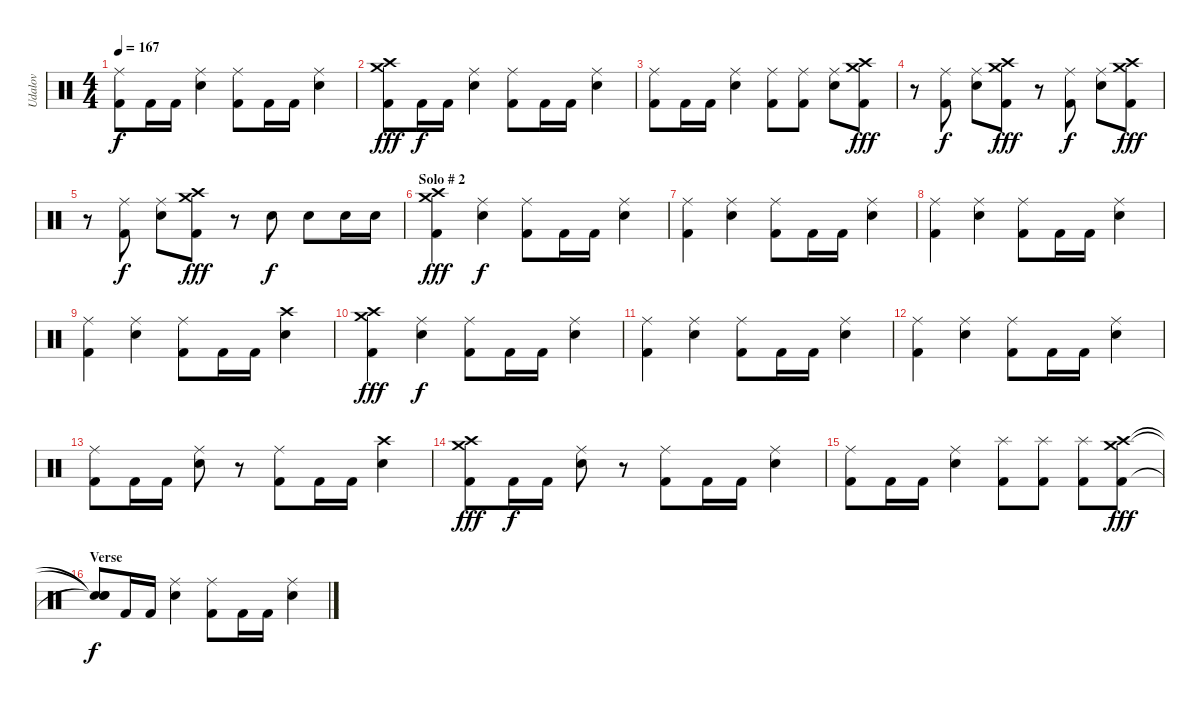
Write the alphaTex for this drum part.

\track ("Udalov" "Udalov") {instrument percussion}
\staff {score}
\articulation defaults
\ts (4 4)
\tempo 167
\clef neutral
\ks c
("Kick (hit) 2" "Ride (middle)").8{dy f} "Kick (hit) 2".16 "Kick (hit) 2".16 ("Snare (hit) 2" "Ride (middle)").4 ("Kick (hit) 2" "Ride (middle)").8 "Kick (hit) 2".16 "Kick (hit) 2".16 ("Snare (hit) 2" "Ride (middle)").4 |
("Kick (hit) 2" "Crash high (hit)" "Crash medium (hit)").8{dy fff} "Kick (hit) 2".16{dy f} "Kick (hit) 2".16 ("Snare (hit) 2" "Ride (middle)").4 ("Kick (hit) 2" "Ride (middle)").8 "Kick (hit) 2".16 "Kick (hit) 2".16 ("Snare (hit) 2" "Ride (middle)").4 |
("Kick (hit) 2" "Ride (middle)").8 "Kick (hit) 2".16 "Kick (hit) 2".16 ("Snare (hit) 2" "Ride (middle)").4 ("Kick (hit) 2" "Ride (middle)").8 ("Kick (hit) 2" "Ride (middle)").8 ("Snare (hit) 2" "Ride (middle)").8 ("Kick (hit) 2" "Crash high (hit)" "Crash medium (hit)").8{dy fff} |
r.8 ("Kick (hit) 2" "Ride (middle)").8{dy f} ("Snare (hit) 2" "Ride (middle)").8 ("Kick (hit) 2" "Crash high (hit)" "Crash medium (hit)").8{dy fff} r.8 ("Kick (hit) 2" "Ride (middle)").8{dy f} ("Snare (hit) 2" "Ride (middle)").8 ("Kick (hit) 2" "Crash high (hit)" "Crash medium (hit)").8{dy fff} |
r.8 ("Kick (hit) 2" "Ride (middle)").8{dy f} ("Snare (hit) 2" "Ride (middle)").8 ("Kick (hit) 2" "Crash high (hit)" "Crash medium (hit)").8{dy fff} r.8 "Snare (hit) 2".8{dy f} "Snare (hit) 2".8 "Snare (hit) 2".16 "Snare (hit) 2".16 |
\section ("" "Solo # 2")
("Kick (hit) 2" "Crash high (hit)" "Crash medium (hit)").4{dy fff} ("Snare (hit) 2" "Ride (middle)").4{dy f} ("Kick (hit) 2" "Ride (middle)").8 "Kick (hit) 2".16 "Kick (hit) 2".16 ("Snare (hit) 2" "Ride (middle)").4 |
("Kick (hit) 2" "Ride (middle)").4 ("Snare (hit) 2" "Ride (middle)").4 ("Kick (hit) 2" "Ride (middle)").8 "Kick (hit) 2".16 "Kick (hit) 2".16 ("Snare (hit) 2" "Ride (middle)").4 |
("Kick (hit) 2" "Ride (middle)").4 ("Snare (hit) 2" "Ride (middle)").4 ("Kick (hit) 2" "Ride (middle)").8 "Kick (hit) 2".16 "Kick (hit) 2".16 ("Snare (hit) 2" "Ride (middle)").4 |
("Kick (hit) 2" "Ride (middle)").4 ("Snare (hit) 2" "Ride (middle)").4 ("Kick (hit) 2" "Ride (middle)").8 "Kick (hit) 2".16 "Kick (hit) 2".16 ("Snare (hit) 2" "Crash high (hit)").4 |
("Kick (hit) 2" "Crash high (hit)" "Crash medium (hit)").4{dy fff} ("Snare (hit) 2" "Ride (middle)").4{dy f} ("Kick (hit) 2" "Ride (middle)").8 "Kick (hit) 2".16 "Kick (hit) 2".16 ("Snare (hit) 2" "Ride (middle)").4 |
("Kick (hit) 2" "Ride (middle)").4 ("Snare (hit) 2" "Ride (middle)").4 ("Kick (hit) 2" "Ride (middle)").8 "Kick (hit) 2".16 "Kick (hit) 2".16 ("Snare (hit) 2" "Ride (middle)").4 |
("Kick (hit) 2" "Ride (middle)").4 ("Snare (hit) 2" "Ride (middle)").4 ("Kick (hit) 2" "Ride (middle)").8 "Kick (hit) 2".16 "Kick (hit) 2".16 ("Snare (hit) 2" "Ride (middle)").4 |
("Kick (hit) 2" "Ride (middle)").8 "Kick (hit) 2".16 "Kick (hit) 2".16 ("Snare (hit) 2" "Ride (middle)").8 r.8 ("Kick (hit) 2" "Ride (middle)").8 "Kick (hit) 2".16 "Kick (hit) 2".16 ("Snare (hit) 2" "Crash high (hit)").4 |
("Kick (hit) 2" "Crash high (hit)" "Crash medium (hit)").8{dy fff} "Kick (hit) 2".16{dy f} "Kick (hit) 2".16 ("Snare (hit) 2" "Ride (middle)").8 r.8 ("Kick (hit) 2" "Ride (middle)").8 "Kick (hit) 2".16 "Kick (hit) 2".16 ("Snare (hit) 2" "Ride (middle)").4 |
("Kick (hit) 2" "Ride (middle)").8 "Kick (hit) 2".16 "Kick (hit) 2".16 ("Snare (hit) 2" "Ride (middle)").4 ("Kick (hit) 2" "Splash (hit)").8 ("Kick (hit) 2" "Splash (hit)").8 ("Kick (hit) 2" "Splash (hit)").8 ("Kick (hit) 2" "Crash high (hit)" "Crash medium (hit)").8{dy fff} |
\section ("" "Verse")
("Snare (hit)"{t} "Snare (hit)"{t} "Snare (hit)"{t}).8{dy f} "Kick (hit) 2".16 "Kick (hit) 2".16 ("Snare (hit) 2" "Ride (middle)").4 ("Kick (hit) 2" "Ride (middle)").8 "Kick (hit) 2".16 "Kick (hit) 2".16 ("Snare (hit) 2" "Ride (middle)").4
